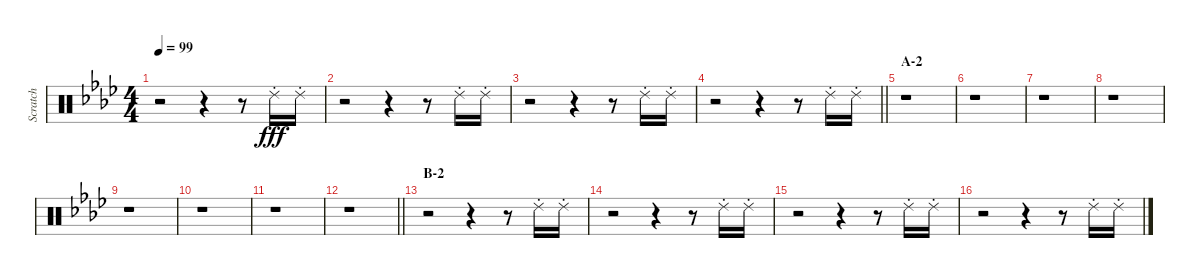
\track ("Scratch" "Scratch") {instrument percussion}
\staff {score}
\articulation defaults
\ts (4 4)
\tempo 99
\clef neutral
\ks ab
r.2{dy fff} r.4 r.8 "Ride (choke) 2".16 "Ride (choke) 2".16 |
r.2 r.4 r.8 "Ride (choke) 2".16 "Ride (choke) 2".16 |
r.2 r.4 r.8 "Ride (choke) 2".16 "Ride (choke) 2".16 |
\barLineRight lightlight
r.2 r.4 r.8 "Ride (choke) 2".16 "Ride (choke) 2".16 |
\section ("" "A-2")
r.1 |
r.1 |
r.1 |
r.1 |
r.1 |
r.1 |
r.1 |
\barLineRight lightlight
r.1 |
\section ("" "B-2")
r.2 r.4 r.8 "Ride (choke) 2".16 "Ride (choke) 2".16 |
r.2 r.4 r.8 "Ride (choke) 2".16 "Ride (choke) 2".16 |
r.2 r.4 r.8 "Ride (choke) 2".16 "Ride (choke) 2".16 |
r.2 r.4 r.8 "Ride (choke) 2".16 "Ride (choke) 2".16
